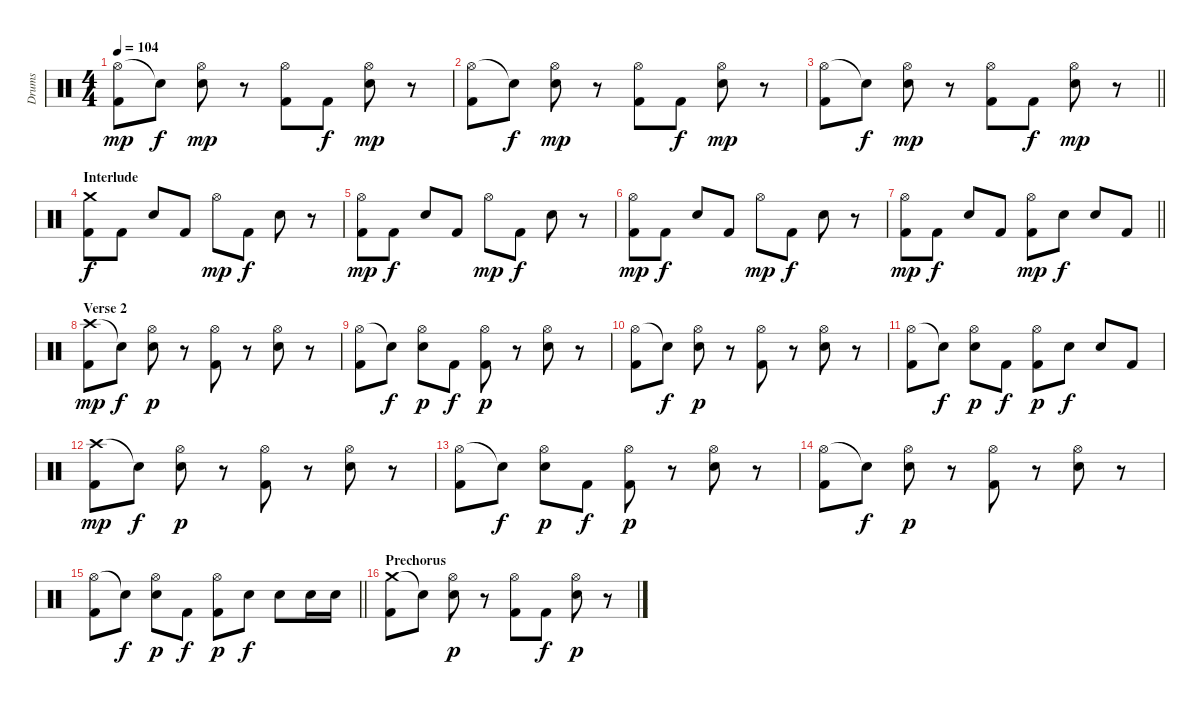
\track ("Drums" "Drums") {instrument percussion}
\staff {score}
\articulation defaults
\ts (4 4)
\tempo 104
\clef neutral
\ks c
("Hi-Hat (open)" "Kick (hit) 2").8{dy mp} "Snare (hit)"{t}.8{dy f} ("Hi-Hat (open)" "Electric Snare (hit)").8{dy mp} r.8 ("Hi-Hat (open)" "Kick (hit) 2").8 "Kick (hit) 2".8{dy f} ("Hi-Hat (open)" "Electric Snare (hit)").8{dy mp} r.8 |
("Hi-Hat (open)" "Kick (hit) 2").8 "Snare (hit)"{t}.8{dy f} ("Hi-Hat (open)" "Electric Snare (hit)").8{dy mp} r.8 ("Hi-Hat (open)" "Kick (hit) 2").8 "Kick (hit) 2".8{dy f} ("Hi-Hat (open)" "Electric Snare (hit)").8{dy mp} r.8 |
\barLineRight lightlight
("Hi-Hat (open)" "Kick (hit) 2").8 "Snare (hit)"{t}.8{dy f} ("Hi-Hat (open)" "Electric Snare (hit)").8{dy mp} r.8 ("Hi-Hat (open)" "Kick (hit) 2").8 "Kick (hit) 2".8{dy f} ("Hi-Hat (open)" "Electric Snare (hit)").8{dy mp} r.8 |
\section ("" "Interlude")
("Crash medium (hit)" "Kick (hit) 2").8{dy f} "Kick (hit) 2".8 "Electric Snare (hit)".8 "Kick (hit) 2".8 "Hi-Hat (open)".8{dy mp} "Kick (hit) 2".8{dy f} "Electric Snare (hit)".8 r.8 |
("Hi-Hat (open)" "Kick (hit) 2").8{dy mp} "Kick (hit) 2".8{dy f} "Electric Snare (hit)".8 "Kick (hit) 2".8 "Hi-Hat (open)".8{dy mp} "Kick (hit) 2".8{dy f} "Electric Snare (hit)".8 r.8 |
("Hi-Hat (open)" "Kick (hit) 2").8{dy mp} "Kick (hit) 2".8{dy f} "Electric Snare (hit)".8 "Kick (hit) 2".8 "Hi-Hat (open)".8{dy mp} "Kick (hit) 2".8{dy f} "Electric Snare (hit)".8 r.8 |
\barLineRight lightlight
("Hi-Hat (open)" "Kick (hit) 2").8{dy mp} "Kick (hit) 2".8{dy f} "Electric Snare (hit)".8 "Kick (hit) 2".8 ("Hi-Hat (open)" "Kick (hit) 2").8{dy mp} "Electric Snare (hit)".8{dy f} "Electric Snare (hit)".8 "Kick (hit) 2".8 |
\section ("" "Verse 2")
("Crash high (hit)" "Kick (hit) 2").8{dy mp} "Snare (hit)"{t}.8{dy f} ("Hi-Hat (open)" "Electric Snare (hit)").8{dy p} r.8 ("Hi-Hat (open)" "Kick (hit) 2").8 r.8 ("Hi-Hat (open)" "Electric Snare (hit)").8 r.8 |
("Hi-Hat (open)" "Kick (hit) 2").8 "Snare (hit)"{t}.8{dy f} ("Hi-Hat (open)" "Electric Snare (hit)").8{dy p} "Kick (hit) 2".8{dy f} ("Hi-Hat (open)" "Kick (hit) 2").8{dy p} r.8 ("Hi-Hat (open)" "Electric Snare (hit)").8 r.8 |
("Hi-Hat (open)" "Kick (hit) 2").8 "Snare (hit)"{t}.8{dy f} ("Hi-Hat (open)" "Electric Snare (hit)").8{dy p} r.8 ("Hi-Hat (open)" "Kick (hit) 2").8 r.8 ("Hi-Hat (open)" "Electric Snare (hit)").8 r.8 |
("Hi-Hat (open)" "Kick (hit) 2").8 "Snare (hit)"{t}.8{dy f} ("Hi-Hat (open)" "Electric Snare (hit)").8{dy p} "Kick (hit) 2".8{dy f} ("Hi-Hat (open)" "Kick (hit) 2").8{dy p} "Electric Snare (hit)".8{dy f} "Electric Snare (hit)".8 "Kick (hit) 2".8 |
("Crash high (hit)" "Kick (hit) 2").8{dy mp} "Snare (hit)"{t}.8{dy f} ("Hi-Hat (open)" "Electric Snare (hit)").8{dy p} r.8 ("Hi-Hat (open)" "Kick (hit) 2").8 r.8 ("Hi-Hat (open)" "Electric Snare (hit)").8 r.8 |
("Hi-Hat (open)" "Kick (hit) 2").8 "Snare (hit)"{t}.8{dy f} ("Hi-Hat (open)" "Electric Snare (hit)").8{dy p} "Kick (hit) 2".8{dy f} ("Hi-Hat (open)" "Kick (hit) 2").8{dy p} r.8 ("Hi-Hat (open)" "Electric Snare (hit)").8 r.8 |
("Hi-Hat (open)" "Kick (hit) 2").8 "Snare (hit)"{t}.8{dy f} ("Hi-Hat (open)" "Electric Snare (hit)").8{dy p} r.8 ("Hi-Hat (open)" "Kick (hit) 2").8 r.8 ("Hi-Hat (open)" "Electric Snare (hit)").8 r.8 |
\barLineRight lightlight
("Hi-Hat (open)" "Kick (hit) 2").8 "Snare (hit)"{t}.8{dy f} ("Hi-Hat (open)" "Electric Snare (hit)").8{dy p} "Kick (hit) 2".8{dy f} ("Hi-Hat (open)" "Kick (hit) 2").8{dy p} "Electric Snare (hit)".8{dy f} "Electric Snare (hit)".8 "Electric Snare (hit)".16 "Electric Snare (hit)".16 |
\section ("" "Prechorus")
("Crash medium (hit)" "Kick (hit) 2").8 "Snare (hit)"{t}.8 ("Hi-Hat (open)" "Electric Snare (hit)").8{dy p} r.8 ("Hi-Hat (open)" "Kick (hit) 2").8 "Kick (hit) 2".8{dy f} ("Hi-Hat (open)" "Electric Snare (hit)").8{dy p} r.8
